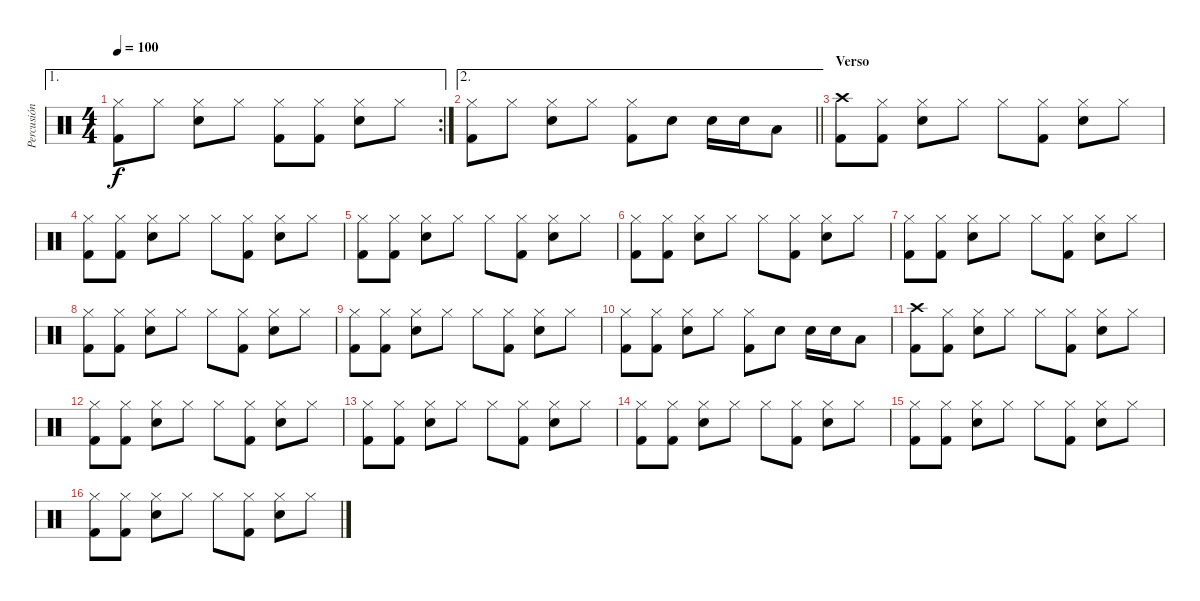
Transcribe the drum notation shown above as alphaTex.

\track ("Percusión" "Percusión") {instrument percussion}
\staff {score}
\articulation defaults
\ae 1
\rc 2
\ts (4 4)
\tempo 100
\clef neutral
\ks c
("Hi-Hat (closed)" "Kick (hit) 2").8{dy f} "Hi-Hat (closed)".8 ("Hi-Hat (closed)" "Snare (hit) 2").8 "Hi-Hat (closed)".8 ("Hi-Hat (closed)" "Kick (hit) 2").8 ("Hi-Hat (closed)" "Kick (hit) 2").8 ("Hi-Hat (closed)" "Snare (hit) 2").8 "Hi-Hat (closed)".8 |
\ae 2
\barLineRight lightlight
("Hi-Hat (closed)" "Kick (hit) 2").8 "Hi-Hat (closed)".8 ("Hi-Hat (closed)" "Snare (hit) 2").8 "Hi-Hat (closed)".8 ("Hi-Hat (closed)" "Kick (hit) 2").8 "Snare (hit) 2".8 "Snare (hit) 2".16 "Snare (hit) 2".16 "Low Tom (hit)".8 |
\section ("" "Verso")
("Crash high (hit)" "Kick (hit) 2").8 ("Hi-Hat (closed)" "Kick (hit) 2").8 ("Hi-Hat (closed)" "Snare (hit) 2").8 "Hi-Hat (closed)".8 "Hi-Hat (closed)".8 ("Hi-Hat (closed)" "Kick (hit) 2").8 ("Hi-Hat (closed)" "Snare (hit) 2").8 "Hi-Hat (closed)".8 |
("Hi-Hat (closed)" "Kick (hit) 2").8 ("Hi-Hat (closed)" "Kick (hit) 2").8 ("Hi-Hat (closed)" "Snare (hit) 2").8 "Hi-Hat (closed)".8 "Hi-Hat (closed)".8 ("Hi-Hat (closed)" "Kick (hit) 2").8 ("Hi-Hat (closed)" "Snare (hit) 2").8 "Hi-Hat (closed)".8 |
("Hi-Hat (closed)" "Kick (hit) 2").8 ("Hi-Hat (closed)" "Kick (hit) 2").8 ("Hi-Hat (closed)" "Snare (hit) 2").8 "Hi-Hat (closed)".8 "Hi-Hat (closed)".8 ("Hi-Hat (closed)" "Kick (hit) 2").8 ("Hi-Hat (closed)" "Snare (hit) 2").8 "Hi-Hat (closed)".8 |
("Hi-Hat (closed)" "Kick (hit) 2").8 ("Hi-Hat (closed)" "Kick (hit) 2").8 ("Hi-Hat (closed)" "Snare (hit) 2").8 "Hi-Hat (closed)".8 "Hi-Hat (closed)".8 ("Hi-Hat (closed)" "Kick (hit) 2").8 ("Hi-Hat (closed)" "Snare (hit) 2").8 "Hi-Hat (closed)".8 |
("Hi-Hat (closed)" "Kick (hit) 2").8 ("Hi-Hat (closed)" "Kick (hit) 2").8 ("Hi-Hat (closed)" "Snare (hit) 2").8 "Hi-Hat (closed)".8 "Hi-Hat (closed)".8 ("Hi-Hat (closed)" "Kick (hit) 2").8 ("Hi-Hat (closed)" "Snare (hit) 2").8 "Hi-Hat (closed)".8 |
("Hi-Hat (closed)" "Kick (hit) 2").8 ("Hi-Hat (closed)" "Kick (hit) 2").8 ("Hi-Hat (closed)" "Snare (hit) 2").8 "Hi-Hat (closed)".8 "Hi-Hat (closed)".8 ("Hi-Hat (closed)" "Kick (hit) 2").8 ("Hi-Hat (closed)" "Snare (hit) 2").8 "Hi-Hat (closed)".8 |
("Hi-Hat (closed)" "Kick (hit) 2").8 ("Hi-Hat (closed)" "Kick (hit) 2").8 ("Hi-Hat (closed)" "Snare (hit) 2").8 "Hi-Hat (closed)".8 "Hi-Hat (closed)".8 ("Hi-Hat (closed)" "Kick (hit) 2").8 ("Hi-Hat (closed)" "Snare (hit) 2").8 "Hi-Hat (closed)".8 |
("Hi-Hat (closed)" "Kick (hit) 2").8 ("Hi-Hat (closed)" "Kick (hit) 2").8 ("Hi-Hat (closed)" "Snare (hit) 2").8 "Hi-Hat (closed)".8 ("Hi-Hat (closed)" "Kick (hit) 2").8 "Snare (hit) 2".8 "Snare (hit) 2".16 "Snare (hit) 2".16 "Low Tom (hit)".8 |
("Crash high (hit)" "Kick (hit) 2").8 ("Hi-Hat (closed)" "Kick (hit) 2").8 ("Hi-Hat (closed)" "Snare (hit) 2").8 "Hi-Hat (closed)".8 "Hi-Hat (closed)".8 ("Hi-Hat (closed)" "Kick (hit) 2").8 ("Hi-Hat (closed)" "Snare (hit) 2").8 "Hi-Hat (closed)".8 |
("Hi-Hat (closed)" "Kick (hit) 2").8 ("Hi-Hat (closed)" "Kick (hit) 2").8 ("Hi-Hat (closed)" "Snare (hit) 2").8 "Hi-Hat (closed)".8 "Hi-Hat (closed)".8 ("Hi-Hat (closed)" "Kick (hit) 2").8 ("Hi-Hat (closed)" "Snare (hit) 2").8 "Hi-Hat (closed)".8 |
("Hi-Hat (closed)" "Kick (hit) 2").8 ("Hi-Hat (closed)" "Kick (hit) 2").8 ("Hi-Hat (closed)" "Snare (hit) 2").8 "Hi-Hat (closed)".8 "Hi-Hat (closed)".8 ("Hi-Hat (closed)" "Kick (hit) 2").8 ("Hi-Hat (closed)" "Snare (hit) 2").8 "Hi-Hat (closed)".8 |
("Hi-Hat (closed)" "Kick (hit) 2").8 ("Hi-Hat (closed)" "Kick (hit) 2").8 ("Hi-Hat (closed)" "Snare (hit) 2").8 "Hi-Hat (closed)".8 "Hi-Hat (closed)".8 ("Hi-Hat (closed)" "Kick (hit) 2").8 ("Hi-Hat (closed)" "Snare (hit) 2").8 "Hi-Hat (closed)".8 |
("Hi-Hat (closed)" "Kick (hit) 2").8 ("Hi-Hat (closed)" "Kick (hit) 2").8 ("Hi-Hat (closed)" "Snare (hit) 2").8 "Hi-Hat (closed)".8 "Hi-Hat (closed)".8 ("Hi-Hat (closed)" "Kick (hit) 2").8 ("Hi-Hat (closed)" "Snare (hit) 2").8 "Hi-Hat (closed)".8 |
("Hi-Hat (closed)" "Kick (hit) 2").8 ("Hi-Hat (closed)" "Kick (hit) 2").8 ("Hi-Hat (closed)" "Snare (hit) 2").8 "Hi-Hat (closed)".8 "Hi-Hat (closed)".8 ("Hi-Hat (closed)" "Kick (hit) 2").8 ("Hi-Hat (closed)" "Snare (hit) 2").8 "Hi-Hat (closed)".8
